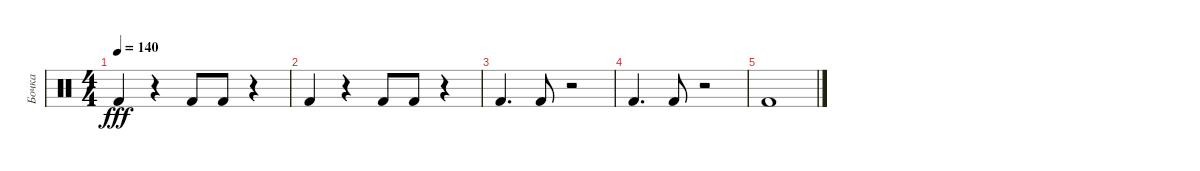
\track ("Бочка" "Бочка") {instrument percussion}
\staff {score}
\articulation defaults
\ts (4 4)
\tempo 140
\clef neutral
\ks c "Kick (hit) 2".4{dy fff}
r.4 "Kick (hit) 2".8 "Kick (hit) 2".8 r.4 |
"Kick (hit) 2".4 r.4 "Kick (hit) 2".8 "Kick (hit) 2".8 r.4 |
"Kick (hit) 2".4{d} "Kick (hit) 2".8 r.2 |
"Kick (hit) 2".4{d} "Kick (hit) 2".8 r.2 |
"Kick (hit) 2".1
